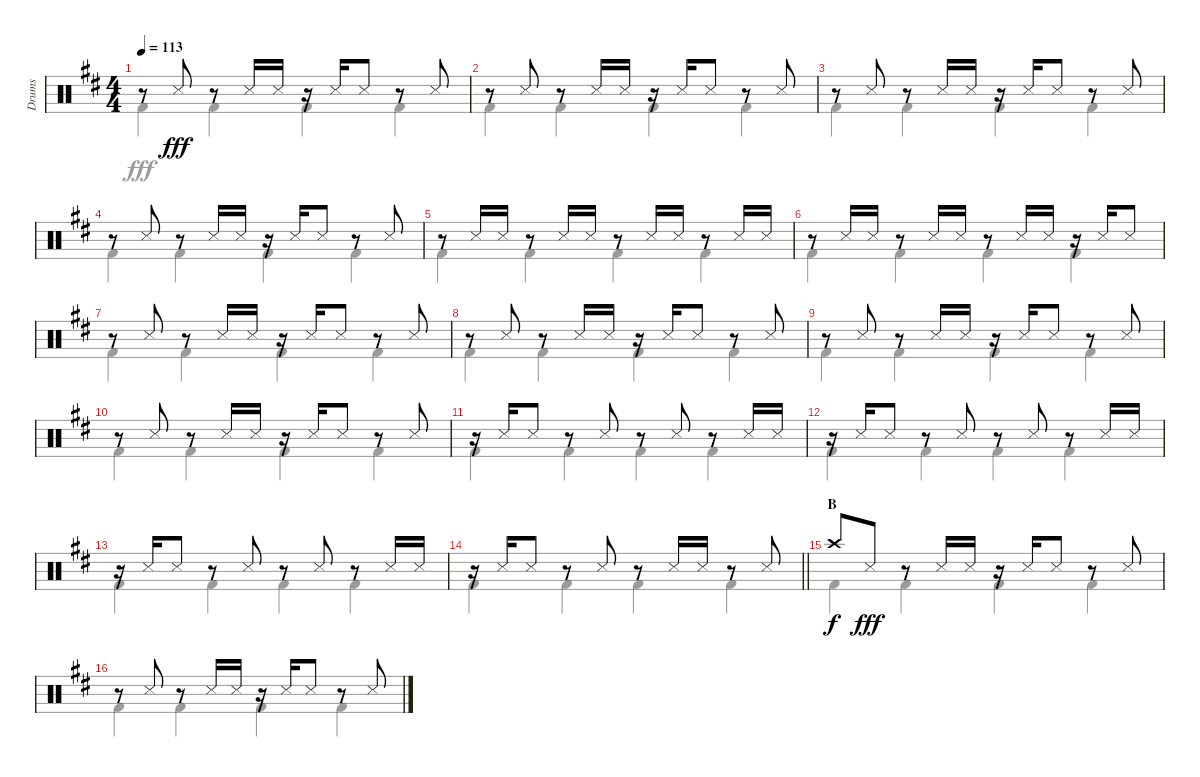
\track ("Drums" "Drums") {instrument percussion}
\staff {score}
\articulation defaults
\voice
\ts (4 4)
\tempo 113
\clef neutral
\ks d
r.8{dy fff} "Snare (side stick) 3".8 r.8 "Snare (side stick) 3".16 "Snare (side stick) 3".16 r.16 "Snare (side stick) 3".16 "Snare (side stick) 3".8 r.8 "Snare (side stick) 3".8 |
r.8 "Snare (side stick) 3".8 r.8 "Snare (side stick) 3".16 "Snare (side stick) 3".16 r.16 "Snare (side stick) 3".16 "Snare (side stick) 3".8 r.8 "Snare (side stick) 3".8 |
r.8 "Snare (side stick) 3".8 r.8 "Snare (side stick) 3".16 "Snare (side stick) 3".16 r.16 "Snare (side stick) 3".16 "Snare (side stick) 3".8 r.8 "Snare (side stick) 3".8 |
r.8 "Snare (side stick) 3".8 r.8 "Snare (side stick) 3".16 "Snare (side stick) 3".16 r.16 "Snare (side stick) 3".16 "Snare (side stick) 3".8 r.8 "Snare (side stick) 3".8 |
r.8 "Snare (side stick) 3".16 "Snare (side stick) 3".16 r.8 "Snare (side stick) 3".16 "Snare (side stick) 3".16 r.8 "Snare (side stick) 3".16 "Snare (side stick) 3".16 r.8 "Snare (side stick) 3".16 "Snare (side stick) 3".16 |
r.8 "Snare (side stick) 3".16 "Snare (side stick) 3".16 r.8 "Snare (side stick) 3".16 "Snare (side stick) 3".16 r.8 "Snare (side stick) 3".16 "Snare (side stick) 3".16 r.16 "Snare (side stick) 3".16 "Snare (side stick) 3".8 |
r.8 "Snare (side stick) 3".8 r.8 "Snare (side stick) 3".16 "Snare (side stick) 3".16 r.16 "Snare (side stick) 3".16 "Snare (side stick) 3".8 r.8 "Snare (side stick) 3".8 |
r.8 "Snare (side stick) 3".8 r.8 "Snare (side stick) 3".16 "Snare (side stick) 3".16 r.16 "Snare (side stick) 3".16 "Snare (side stick) 3".8 r.8 "Snare (side stick) 3".8 |
r.8 "Snare (side stick) 3".8 r.8 "Snare (side stick) 3".16 "Snare (side stick) 3".16 r.16 "Snare (side stick) 3".16 "Snare (side stick) 3".8 r.8 "Snare (side stick) 3".8 |
r.8 "Snare (side stick) 3".8 r.8 "Snare (side stick) 3".16 "Snare (side stick) 3".16 r.16 "Snare (side stick) 3".16 "Snare (side stick) 3".8 r.8 "Snare (side stick) 3".8 |
r.16 "Snare (side stick) 3".16 "Snare (side stick) 3".8 r.8 "Snare (side stick) 3".8 r.8 "Snare (side stick) 3".8 r.8 "Snare (side stick) 3".16 "Snare (side stick) 3".16 |
r.16 "Snare (side stick) 3".16 "Snare (side stick) 3".8 r.8 "Snare (side stick) 3".8 r.8 "Snare (side stick) 3".8 r.8 "Snare (side stick) 3".16 "Snare (side stick) 3".16 |
r.16 "Snare (side stick) 3".16 "Snare (side stick) 3".8 r.8 "Snare (side stick) 3".8 r.8 "Snare (side stick) 3".8 r.8 "Snare (side stick) 3".16 "Snare (side stick) 3".16 |
\barLineRight lightlight
r.16 "Snare (side stick) 3".16 "Snare (side stick) 3".8 r.8 "Snare (side stick) 3".8 r.8 "Snare (side stick) 3".16 "Snare (side stick) 3".16 r.8 "Snare (side stick) 3".8 |
\section ("" "B")
"Crash high (hit)".8{dy f} "Snare (side stick) 3".8{dy fff} r.8 "Snare (side stick) 3".16 "Snare (side stick) 3".16 r.16 "Snare (side stick) 3".16 "Snare (side stick) 3".8 r.8 "Snare (side stick) 3".8 |
r.8 "Snare (side stick) 3".8 r.8 "Snare (side stick) 3".16 "Snare (side stick) 3".16 r.16 "Snare (side stick) 3".16 "Snare (side stick) 3".8 r.8 "Snare (side stick) 3".8
\voice
\clef neutral
\ottava regular
\simile none
\ks d "Kick (hit) 2".4{dy fff} "Kick (hit) 2".4 "Kick (hit) 2".4 "Kick (hit) 2".4
|
"Kick (hit) 2".4 "Kick (hit) 2".4 "Kick (hit) 2".4 "Kick (hit) 2".4 |
"Kick (hit) 2".4 "Kick (hit) 2".4 "Kick (hit) 2".4 "Kick (hit) 2".4 |
"Kick (hit) 2".4 "Kick (hit) 2".4 "Kick (hit) 2".4 "Kick (hit) 2".4 |
"Kick (hit) 2".4 "Kick (hit) 2".4 "Kick (hit) 2".4 "Kick (hit) 2".4 |
"Kick (hit) 2".4 "Kick (hit) 2".4 "Kick (hit) 2".4 "Kick (hit) 2".4 |
"Kick (hit) 2".4 "Kick (hit) 2".4 "Kick (hit) 2".4 "Kick (hit) 2".4 |
"Kick (hit) 2".4 "Kick (hit) 2".4 "Kick (hit) 2".4 "Kick (hit) 2".4 |
"Kick (hit) 2".4 "Kick (hit) 2".4 "Kick (hit) 2".4 "Kick (hit) 2".4 |
"Kick (hit) 2".4 "Kick (hit) 2".4 "Kick (hit) 2".4 "Kick (hit) 2".4 |
"Kick (hit) 2".4 "Kick (hit) 2".4 "Kick (hit) 2".4 "Kick (hit) 2".4 |
"Kick (hit) 2".4 "Kick (hit) 2".4 "Kick (hit) 2".4 "Kick (hit) 2".4 |
"Kick (hit) 2".4 "Kick (hit) 2".4 "Kick (hit) 2".4 "Kick (hit) 2".4 |
\barLineRight lightlight "Kick (hit) 2".4 "Kick (hit) 2".4 "Kick (hit) 2".4 "Kick (hit) 2".4
|
"Kick (hit) 2".4 "Kick (hit) 2".4 "Kick (hit) 2".4 "Kick (hit) 2".4 |
"Kick (hit) 2".4 "Kick (hit) 2".4 "Kick (hit) 2".4 "Kick (hit) 2".4
